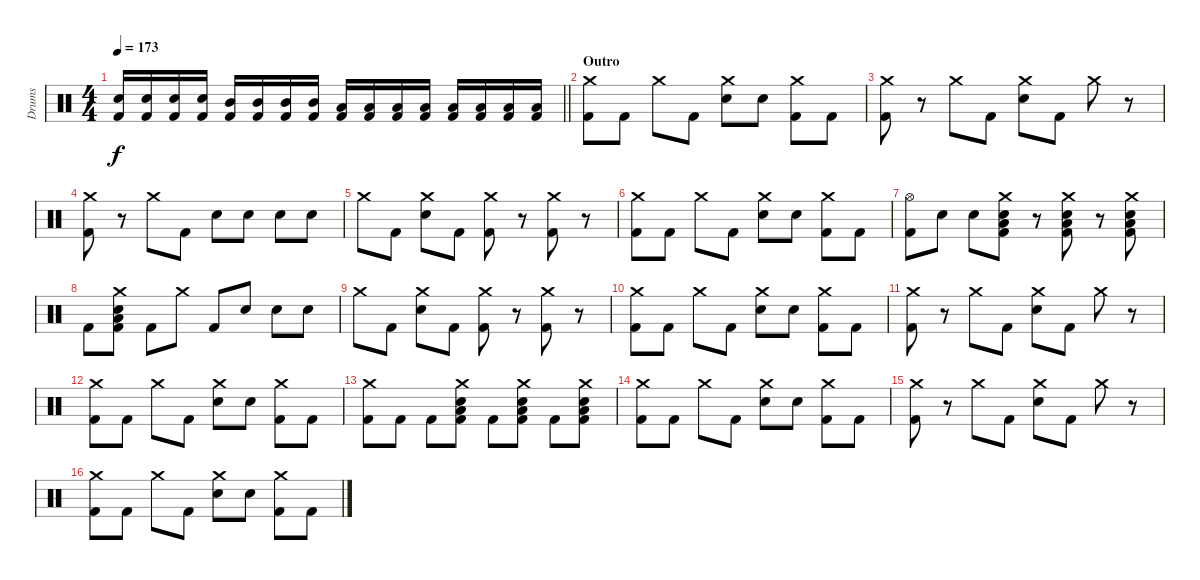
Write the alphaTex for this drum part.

\track ("Drums" "Drums") {instrument percussion}
\staff {score}
\articulation defaults
\ts (4 4)
\tempo 173
\clef neutral
\barLineRight lightlight
\ks c
("Snare (hit) 2" "Kick (hit) 2").16{dy f} ("Snare (hit) 2" "Kick (hit) 2").16 ("Snare (hit) 2" "Kick (hit) 2").16 ("Snare (hit) 2" "Kick (hit) 2").16 ("Mid Tom (hit)" "Kick (hit) 2").16 ("Mid Tom (hit)" "Kick (hit) 2").16 ("Mid Tom (hit)" "Kick (hit) 2").16 ("Mid Tom (hit)" "Kick (hit) 2").16 ("Low Tom (hit)" "Kick (hit) 2").16 ("Low Tom (hit)" "Kick (hit) 2").16 ("Low Tom (hit)" "Kick (hit) 2").16 ("Low Tom (hit)" "Kick (hit) 2").16 ("Low Floor Tom (hit)" "Kick (hit) 2").16 ("Low Floor Tom (hit)" "Kick (hit) 2").16 ("Low Floor Tom (hit)" "Kick (hit) 2").16 ("Low Floor Tom (hit)" "Kick (hit) 2").16 |
\section ("" "Outro")
("Crash medium (hit)" "Kick (hit) 2").8 "Kick (hit) 2".8 "Crash medium (hit)".8 "Kick (hit) 2".8 ("Crash medium (hit)" "Snare (hit) 2").8 "Snare (hit) 2".8 ("Crash medium (hit)" "Kick (hit) 2").8 "Kick (hit) 2".8 |
("Crash medium (hit)" "Kick (hit) 2").8 r.8 "Crash medium (hit)".8 "Kick (hit) 2".8 ("Crash medium (hit)" "Snare (hit) 2").8 "Kick (hit) 2".8 "Crash medium (hit)".8 r.8 |
("Crash medium (hit)" "Kick (hit) 2").8 r.8 "Crash medium (hit)".8 "Kick (hit) 2".8 "Snare (hit) 2".8 "Snare (hit) 2".8 "Snare (hit) 2".8 "Snare (hit) 2".8 |
"Crash medium (hit)".8 "Kick (hit) 2".8 ("Crash medium (hit)" "Snare (hit) 2").8 "Kick (hit) 2".8 ("Crash medium (hit)" "Kick (hit) 2").8 r.8 ("Crash medium (hit)" "Kick (hit) 2").8 r.8 |
("Crash medium (hit)" "Kick (hit) 2").8 "Kick (hit) 2".8 "Crash medium (hit)".8 "Kick (hit) 2".8 ("Crash medium (hit)" "Snare (hit) 2").8 "Snare (hit) 2".8 ("Crash medium (hit)" "Kick (hit) 2").8 "Kick (hit) 2".8 |
("Hi-Hat (open)" "Kick (hit) 2").8 "Snare (hit) 2".8 "Snare (hit) 2".8 ("Crash medium (hit)" "Low Floor Tom (hit)" "Snare (hit) 2" "Kick (hit) 2").8 r.8 ("Crash medium (hit)" "Low Floor Tom (hit)" "Snare (hit) 2" "Kick (hit) 2").8 r.8 ("Crash medium (hit)" "Low Floor Tom (hit)" "Snare (hit) 2" "Kick (hit) 2").8 |
"Kick (hit) 2".8 ("Crash medium (hit)" "Low Floor Tom (hit)" "Snare (hit) 2" "Kick (hit) 2").8 "Kick (hit) 2".8 "Crash medium (hit)".8 "Kick (hit) 2".8 "Snare (hit) 2".8 "Snare (hit) 2".8 "Snare (hit) 2".8 |
"Crash medium (hit)".8 "Kick (hit) 2".8 ("Crash medium (hit)" "Snare (hit) 2").8 "Kick (hit) 2".8 ("Crash medium (hit)" "Kick (hit) 2").8 r.8 ("Crash medium (hit)" "Kick (hit) 2").8 r.8 |
("Crash medium (hit)" "Kick (hit) 2").8 "Kick (hit) 2".8 "Crash medium (hit)".8 "Kick (hit) 2".8 ("Crash medium (hit)" "Snare (hit) 2").8 "Snare (hit) 2".8 ("Crash medium (hit)" "Kick (hit) 2").8 "Kick (hit) 2".8 |
("Crash medium (hit)" "Kick (hit) 2").8 r.8 "Crash medium (hit)".8 "Kick (hit) 2".8 ("Crash medium (hit)" "Snare (hit) 2").8 "Kick (hit) 2".8 "Crash medium (hit)".8 r.8 |
("Crash medium (hit)" "Kick (hit) 2").8 "Kick (hit) 2".8 "Crash medium (hit)".8 "Kick (hit) 2".8 ("Crash medium (hit)" "Snare (hit) 2").8 "Snare (hit) 2".8 ("Crash medium (hit)" "Kick (hit) 2").8 "Kick (hit) 2".8 |
("Crash medium (hit)" "Kick (hit) 2").8 "Kick (hit) 2".8 "Kick (hit) 2".8 ("Crash medium (hit)" "Low Floor Tom (hit)" "Snare (hit) 2" "Kick (hit) 2").8 "Kick (hit) 2".8 ("Crash medium (hit)" "Low Floor Tom (hit)" "Snare (hit) 2" "Kick (hit) 2").8 "Kick (hit) 2".8 ("Crash medium (hit)" "Low Floor Tom (hit)" "Snare (hit) 2" "Kick (hit) 2").8 |
("Crash medium (hit)" "Kick (hit) 2").8 "Kick (hit) 2".8 "Crash medium (hit)".8 "Kick (hit) 2".8 ("Crash medium (hit)" "Snare (hit) 2").8 "Snare (hit) 2".8 ("Crash medium (hit)" "Kick (hit) 2").8 "Kick (hit) 2".8 |
("Crash medium (hit)" "Kick (hit) 2").8 r.8 "Crash medium (hit)".8 "Kick (hit) 2".8 ("Crash medium (hit)" "Snare (hit) 2").8 "Kick (hit) 2".8 "Crash medium (hit)".8 r.8 |
("Crash medium (hit)" "Kick (hit) 2").8 "Kick (hit) 2".8 "Crash medium (hit)".8 "Kick (hit) 2".8 ("Crash medium (hit)" "Snare (hit) 2").8 "Snare (hit) 2".8 ("Crash medium (hit)" "Kick (hit) 2").8 "Kick (hit) 2".8
